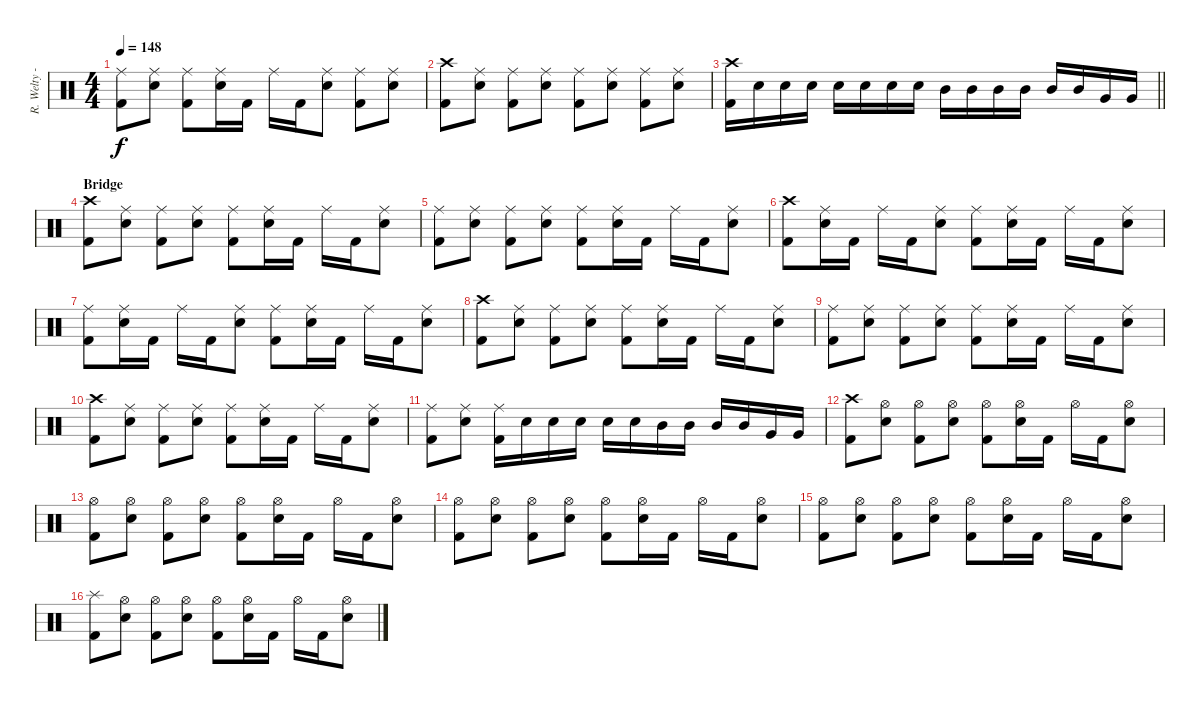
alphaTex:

\track ("R. Welty - Drums" "R. Welty -") {instrument percussion}
\staff {score}
\articulation defaults
\ts (4 4)
\tempo 148
\clef neutral
\ks c
("Ride (middle)" "Kick (hit) 2").8{dy f} ("Ride (middle)" "Snare (hit) 2").8 ("Ride (middle)" "Kick (hit) 2").8 ("Ride (middle)" "Snare (hit) 2").16 "Kick (hit) 2".16 "Ride (middle)".16 "Kick (hit) 2".16 ("Ride (middle)" "Snare (hit) 2").8 ("Ride (middle)" "Kick (hit) 2").8 ("Ride (middle)" "Snare (hit) 2").8 |
("Crash high (hit)" "Kick (hit) 2").8 ("Ride (middle)" "Snare (hit) 2").8 ("Ride (middle)" "Kick (hit) 2").8 ("Ride (middle)" "Snare (hit) 2").8 ("Ride (middle)" "Kick (hit) 2").8 ("Ride (middle)" "Snare (hit) 2").8 ("Ride (middle)" "Kick (hit) 2").8 ("Ride (middle)" "Snare (hit) 2").8 |
\barLineRight lightlight
("Crash high (hit)" "Kick (hit) 2").16 "Snare (hit) 2".16 "Snare (hit) 2".16 "Snare (hit) 2".16 "Snare (hit) 2".16 "Snare (hit) 2".16 "Snare (hit) 2".16 "Snare (hit) 2".16 "Mid Tom (hit)".16 "Mid Tom (hit)".16 "Mid Tom (hit)".16 "Mid Tom (hit)".16 "Mid Tom (hit)".16 "Mid Tom (hit)".16 "Very Low Tom (hit)".16 "Very Low Tom (hit)".16 |
\section ("" "Bridge")
("Crash high (hit)" "Kick (hit) 2").8 ("Ride (middle)" "Snare (hit) 2").8 ("Ride (middle)" "Kick (hit) 2").8 ("Ride (middle)" "Snare (hit) 2").8 ("Ride (middle)" "Kick (hit) 2").8 ("Ride (middle)" "Snare (hit) 2").16 "Kick (hit) 2".16 "Ride (middle)".16 "Kick (hit) 2".16 ("Ride (middle)" "Snare (hit) 2").8 |
("Ride (middle)" "Kick (hit) 2").8 ("Ride (middle)" "Snare (hit) 2").8 ("Ride (middle)" "Kick (hit) 2").8 ("Ride (middle)" "Snare (hit) 2").8 ("Ride (middle)" "Kick (hit) 2").8 ("Ride (middle)" "Snare (hit) 2").16 "Kick (hit) 2".16 "Ride (middle)".16 "Kick (hit) 2".16 ("Ride (middle)" "Snare (hit) 2").8 |
("Crash high (hit)" "Kick (hit) 2").8 ("Ride (middle)" "Snare (hit) 2").16 "Kick (hit) 2".16 "Ride (middle)".16 "Kick (hit) 2".16 ("Ride (middle)" "Snare (hit) 2").8 ("Ride (middle)" "Kick (hit) 2").8 ("Ride (middle)" "Snare (hit) 2").16 "Kick (hit) 2".16 "Ride (middle)".16 "Kick (hit) 2".16 ("Ride (middle)" "Snare (hit) 2").8 |
("Ride (middle)" "Kick (hit) 2").8 ("Ride (middle)" "Snare (hit) 2").16 "Kick (hit) 2".16 "Ride (middle)".16 "Kick (hit) 2".16 ("Ride (middle)" "Snare (hit) 2").8 ("Ride (middle)" "Kick (hit) 2").8 ("Ride (middle)" "Snare (hit) 2").16 "Kick (hit) 2".16 "Ride (middle)".16 "Kick (hit) 2".16 ("Ride (middle)" "Snare (hit) 2").8 |
("Crash high (hit)" "Kick (hit) 2").8 ("Ride (middle)" "Snare (hit) 2").8 ("Ride (middle)" "Kick (hit) 2").8 ("Ride (middle)" "Snare (hit) 2").8 ("Ride (middle)" "Kick (hit) 2").8 ("Ride (middle)" "Snare (hit) 2").16 "Kick (hit) 2".16 "Ride (middle)".16 "Kick (hit) 2".16 ("Ride (middle)" "Snare (hit) 2").8 |
("Ride (middle)" "Kick (hit) 2").8 ("Ride (middle)" "Snare (hit) 2").8 ("Ride (middle)" "Kick (hit) 2").8 ("Ride (middle)" "Snare (hit) 2").8 ("Ride (middle)" "Kick (hit) 2").8 ("Ride (middle)" "Snare (hit) 2").16 "Kick (hit) 2".16 "Ride (middle)".16 "Kick (hit) 2".16 ("Ride (middle)" "Snare (hit) 2").8 |
("Crash high (hit)" "Kick (hit) 2").8 ("Ride (middle)" "Snare (hit) 2").8 ("Ride (middle)" "Kick (hit) 2").8 ("Ride (middle)" "Snare (hit) 2").8 ("Ride (middle)" "Kick (hit) 2").8 ("Ride (middle)" "Snare (hit) 2").16 "Kick (hit) 2".16 "Ride (middle)".16 "Kick (hit) 2".16 ("Ride (middle)" "Snare (hit) 2").8 |
("Ride (middle)" "Kick (hit) 2").8 ("Ride (middle)" "Snare (hit) 2").8 ("Ride (middle)" "Kick (hit) 2").16 "Snare (hit) 2".16 "Snare (hit) 2".16 "Snare (hit) 2".16 "Snare (hit) 2".16 "Snare (hit) 2".16 "Mid Tom (hit)".16 "Mid Tom (hit)".16 "Mid Tom (hit)".16 "Mid Tom (hit)".16 "Very Low Tom (hit)".16 "Very Low Tom (hit)".16 |
("Crash high (hit)" "Kick (hit) 2").8 ("Hi-Hat (open)" "Snare (hit) 2").8 ("Hi-Hat (open)" "Kick (hit) 2").8 ("Hi-Hat (open)" "Snare (hit) 2").8 ("Hi-Hat (open)" "Kick (hit) 2").8 ("Hi-Hat (open)" "Snare (hit) 2").16 "Kick (hit) 2".16 "Hi-Hat (open)".16 "Kick (hit) 2".16 ("Hi-Hat (open)" "Snare (hit) 2").8 |
("Hi-Hat (open)" "Kick (hit) 2").8 ("Hi-Hat (open)" "Snare (hit) 2").8 ("Hi-Hat (open)" "Kick (hit) 2").8 ("Hi-Hat (open)" "Snare (hit) 2").8 ("Hi-Hat (open)" "Kick (hit) 2").8 ("Hi-Hat (open)" "Snare (hit) 2").16 "Kick (hit) 2".16 "Hi-Hat (open)".16 "Kick (hit) 2".16 ("Hi-Hat (open)" "Snare (hit) 2").8 |
("Hi-Hat (open)" "Kick (hit) 2").8 ("Hi-Hat (open)" "Snare (hit) 2").8 ("Hi-Hat (open)" "Kick (hit) 2").8 ("Hi-Hat (open)" "Snare (hit) 2").8 ("Hi-Hat (open)" "Kick (hit) 2").8 ("Hi-Hat (open)" "Snare (hit) 2").16 "Kick (hit) 2".16 "Hi-Hat (open)".16 "Kick (hit) 2".16 ("Hi-Hat (open)" "Snare (hit) 2").8 |
("Hi-Hat (open)" "Kick (hit) 2").8 ("Hi-Hat (open)" "Snare (hit) 2").8 ("Hi-Hat (open)" "Kick (hit) 2").8 ("Hi-Hat (open)" "Snare (hit) 2").8 ("Hi-Hat (open)" "Kick (hit) 2").8 ("Hi-Hat (open)" "Snare (hit) 2").16 "Kick (hit) 2".16 "Hi-Hat (open)".16 "Kick (hit) 2".16 ("Hi-Hat (open)" "Snare (hit) 2").8 |
("Splash (hit)" "Kick (hit) 2").8 ("Hi-Hat (open)" "Snare (hit) 2").8 ("Hi-Hat (open)" "Kick (hit) 2").8 ("Hi-Hat (open)" "Snare (hit) 2").8 ("Hi-Hat (open)" "Kick (hit) 2").8 ("Hi-Hat (open)" "Snare (hit) 2").16 "Kick (hit) 2".16 "Hi-Hat (open)".16 "Kick (hit) 2".16 ("Hi-Hat (open)" "Snare (hit) 2").8
